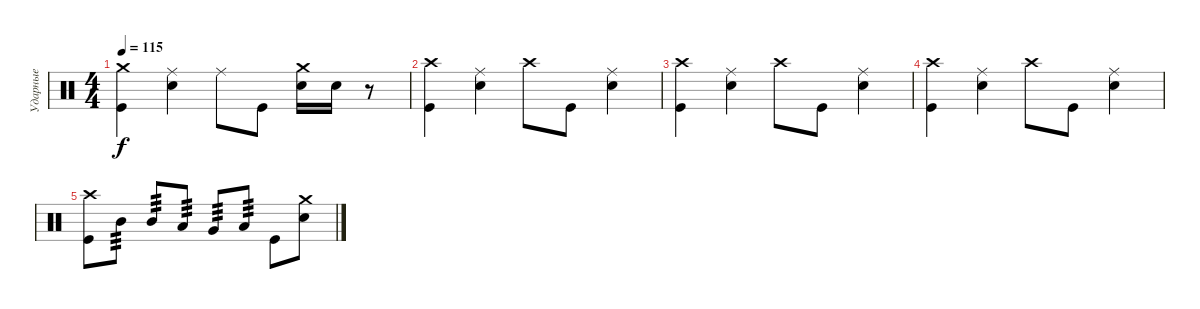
\track ("Ударные" "Ударные") {instrument percussion}
\staff {score}
\articulation defaults
\ts (4 4)
\tempo 115
\clef neutral
\ks c
("Crash medium (hit)" "Kick (hit)").4{dy f} ("Ride (middle)" "Snare (hit) 2").4 "Ride (middle)".8 "Kick (hit)".8 ("Crash medium (hit)" "Snare (hit) 2").16 "Snare (hit) 2".16 r.8 |
("Crash high (hit)" "Kick (hit)").4 ("Ride (middle)" "Snare (hit) 2").4 "Crash high (hit)".8 "Kick (hit)".8 ("Ride (middle)" "Snare (hit) 2").4 |
("Crash high (hit)" "Kick (hit)").4 ("Ride (middle)" "Snare (hit) 2").4 "Crash high (hit)".8 "Kick (hit)".8 ("Ride (middle)" "Snare (hit) 2").4 |
("Crash high (hit)" "Kick (hit)").4 ("Ride (middle)" "Snare (hit) 2").4 "Crash high (hit)".8 "Kick (hit)".8 ("Ride (middle)" "Snare (hit) 2").4 |
("Crash high (hit)" "Kick (hit)").8 "Mid Tom (hit)".8{tp 3} "Mid Tom (hit)".8{tp 3} "Low Tom (hit)".8{tp 3} "Very Low Tom (hit)".8{tp 3} "Low Floor Tom (hit)".8{tp 3} "Kick (hit)".8 ("Crash medium (hit)" "Snare (hit) 2").8
